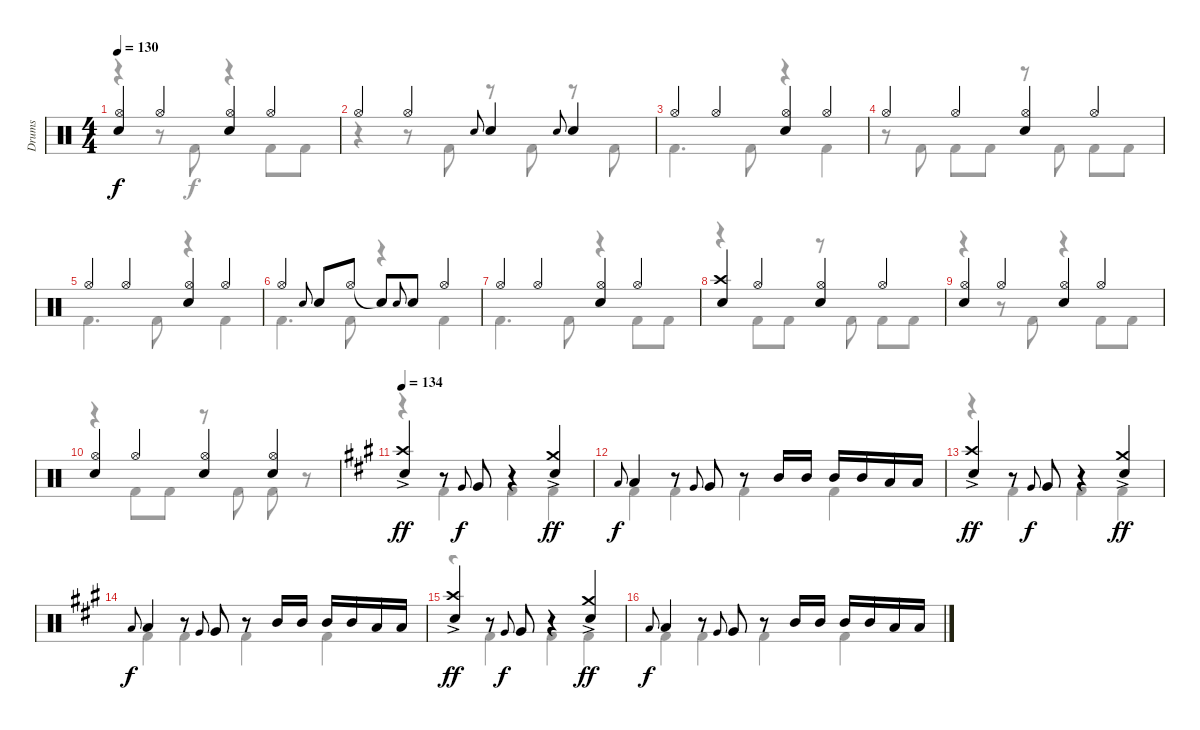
\track ("Drums" "Drums") {instrument percussion}
\staff {score}
\articulation defaults
\voice
\ts (4 4)
\tempo 130
\clef neutral
\ks c
("Hi-Hat (open)" "Electric Snare (hit)").4{dy f} "Hi-Hat (open)".4 ("Hi-Hat (open)" "Electric Snare (hit)").4 "Hi-Hat (open)".4 |
"Hi-Hat (open)".4 "Hi-Hat (open)".4 "Electric Snare (hit)".8{gr onbeat} "Electric Snare (hit)".4 "Electric Snare (hit)".8{gr onbeat} "Electric Snare (hit)".4 |
"Hi-Hat (open)".4 "Hi-Hat (open)".4 ("Hi-Hat (open)" "Electric Snare (hit)").4 "Hi-Hat (open)".4 |
"Hi-Hat (open)".4 "Hi-Hat (open)".4 ("Hi-Hat (open)" "Electric Snare (hit)").4 "Hi-Hat (open)".4 |
"Hi-Hat (open)".4 "Hi-Hat (open)".4 ("Hi-Hat (open)" "Electric Snare (hit)").4 "Hi-Hat (open)".4 |
"Hi-Hat (open)".4 "Electric Snare (hit)".8{gr onbeat} "Electric Snare (hit)".8 "Hi-Hat (open)".8 "Snare (hit)"{t}.8 "Electric Snare (hit)".8{gr onbeat} "Electric Snare (hit)".8 "Hi-Hat (open)".4 |
"Hi-Hat (open)".4 "Hi-Hat (open)".4 ("Hi-Hat (open)" "Electric Snare (hit)").4 "Hi-Hat (open)".4 |
("Crash high (hit)" "Electric Snare (hit)").4 "Hi-Hat (open)".4 ("Hi-Hat (open)" "Electric Snare (hit)").4 "Hi-Hat (open)".4 |
("Hi-Hat (open)" "Electric Snare (hit)").4 "Hi-Hat (open)".4 ("Hi-Hat (open)" "Electric Snare (hit)").4 "Hi-Hat (open)".4 |
("Hi-Hat (open)" "Electric Snare (hit)").4 "Hi-Hat (open)".4 ("Hi-Hat (open)" "Electric Snare (hit)").4 ("Hi-Hat (open)" "Electric Snare (hit)").4 |
\tempo 134
\ks a
("Crash high (hit)"{ac} "Electric Snare (hit)").4{dy ff} r.8 "Very Low Tom (hit)".8{gr onbeat dy f} "Very Low Tom (hit)".8 r.4 ("Crash medium (hit)"{ac} "Electric Snare (hit)").4{dy ff} |
"Low Tom (hit)".8{gr onbeat dy f} "Low Tom (hit)".4 r.8 "Very Low Tom (hit)".8{gr onbeat} "Very Low Tom (hit)".8 r.8 "Mid Tom (hit)".16 "Mid Tom (hit)".16 "Mid Tom (hit)".16 "Mid Tom (hit)".16 "Low Tom (hit)".16 "Low Tom (hit)".16 |
("Crash high (hit)"{ac} "Electric Snare (hit)").4{dy ff} r.8 "Very Low Tom (hit)".8{gr onbeat dy f} "Very Low Tom (hit)".8 r.4 ("Crash medium (hit)"{ac} "Electric Snare (hit)").4{dy ff} |
"Low Tom (hit)".8{gr onbeat dy f} "Low Tom (hit)".4 r.8 "Very Low Tom (hit)".8{gr onbeat} "Very Low Tom (hit)".8 r.8 "Mid Tom (hit)".16 "Mid Tom (hit)".16 "Mid Tom (hit)".16 "Mid Tom (hit)".16 "Low Tom (hit)".16 "Low Tom (hit)".16 |
("Crash high (hit)"{ac} "Electric Snare (hit)").4{dy ff} r.8 "Very Low Tom (hit)".8{gr onbeat dy f} "Very Low Tom (hit)".8 r.4 ("Crash medium (hit)"{ac} "Electric Snare (hit)").4{dy ff} |
"Low Tom (hit)".8{gr onbeat dy f} "Low Tom (hit)".4 r.8 "Very Low Tom (hit)".8{gr onbeat} "Very Low Tom (hit)".8 r.8 "Mid Tom (hit)".16 "Mid Tom (hit)".16 "Mid Tom (hit)".16 "Mid Tom (hit)".16 "Low Tom (hit)".16 "Low Tom (hit)".16
\voice
\clef neutral
\ottava regular
\simile none
\ks c
r.4{dy f} r.8 "Kick (hit) 2".8 r.4 "Kick (hit) 2".8 "Kick (hit) 2".8 |
r.4 r.8 "Kick (hit) 2".8 r.8 "Kick (hit) 2".8 r.8 "Kick (hit) 2".8 |
"Kick (hit) 2".4{d} "Kick (hit) 2".8 r.4 "Kick (hit) 2".4 |
r.8 "Kick (hit) 2".8 "Kick (hit) 2".8 "Kick (hit) 2".8 r.8 "Kick (hit) 2".8 "Kick (hit) 2".8 "Kick (hit) 2".8 |
"Kick (hit) 2".4{d} "Kick (hit) 2".8 r.4 "Kick (hit) 2".4 |
"Kick (hit) 2".4{d} "Kick (hit) 2".8 r.4 "Kick (hit) 2".4 |
"Kick (hit) 2".4{d} "Kick (hit) 2".8 r.4 "Kick (hit) 2".8 "Kick (hit) 2".8 |
r.4 "Kick (hit) 2".8 "Kick (hit) 2".8 r.8 "Kick (hit) 2".8 "Kick (hit) 2".8 "Kick (hit) 2".8 |
r.4 r.8 "Kick (hit) 2".8 r.4 "Kick (hit) 2".8 "Kick (hit) 2".8 |
r.4 "Kick (hit) 2".8 "Kick (hit) 2".8 r.8 "Kick (hit) 2".8 "Kick (hit) 2".8 r.8 |
\ks a
r.4 "Kick (hit) 2".4 "Kick (hit) 2".4 "Kick (hit) 2".4 |
"Kick (hit) 2".4 "Kick (hit) 2".4 "Kick (hit) 2".4 "Kick (hit) 2".4 |
r.4 "Kick (hit) 2".4 "Kick (hit) 2".4 "Kick (hit) 2".4 |
"Kick (hit) 2".4 "Kick (hit) 2".4 "Kick (hit) 2".4 "Kick (hit) 2".4 |
r.4 "Kick (hit) 2".4 "Kick (hit) 2".4 "Kick (hit) 2".4 |
"Kick (hit) 2".4 "Kick (hit) 2".4 "Kick (hit) 2".4 "Kick (hit) 2".4
